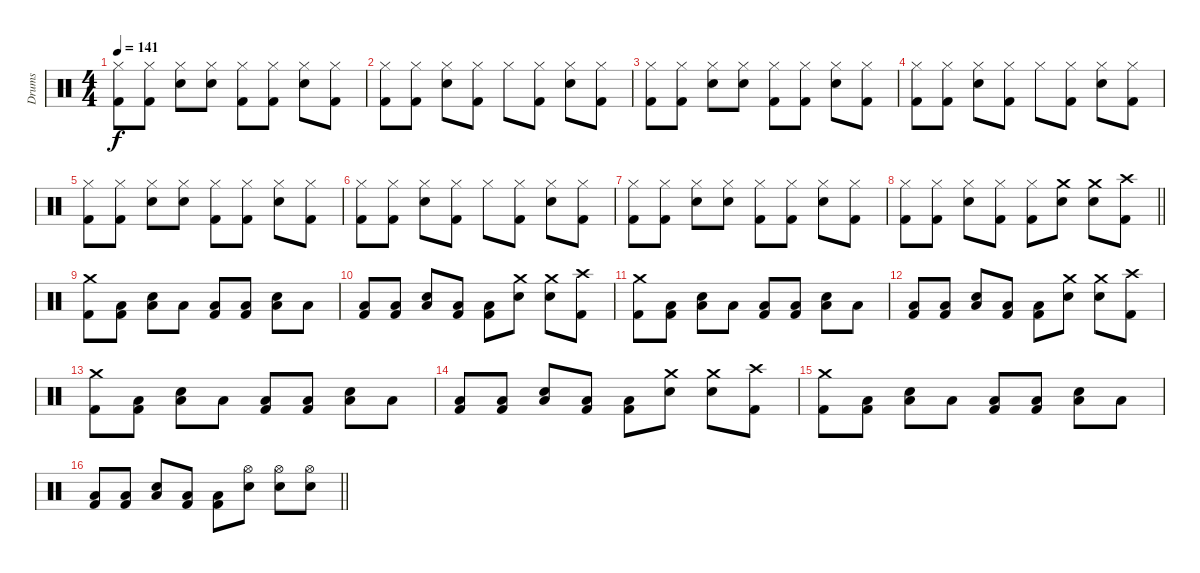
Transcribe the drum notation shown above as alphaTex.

\track ("Drums" "Drums") {instrument percussion}
\staff {score}
\articulation defaults
\ts (4 4)
\tempo 141
\clef neutral
\ks c
("Hi-Hat (closed)" "Kick (hit) 2").8{dy f} ("Hi-Hat (closed)" "Kick (hit) 2").8 ("Hi-Hat (closed)" "Electric Snare (hit)").8 ("Hi-Hat (closed)" "Electric Snare (hit)").8 ("Hi-Hat (closed)" "Kick (hit) 2").8 ("Hi-Hat (closed)" "Kick (hit) 2").8 ("Hi-Hat (closed)" "Electric Snare (hit)").8 ("Hi-Hat (closed)" "Kick (hit) 2").8 |
("Hi-Hat (closed)" "Kick (hit) 2").8 ("Hi-Hat (closed)" "Kick (hit) 2").8 ("Hi-Hat (closed)" "Electric Snare (hit)").8 ("Hi-Hat (closed)" "Kick (hit) 2").8 "Hi-Hat (closed)".8 ("Hi-Hat (closed)" "Kick (hit) 2").8 ("Hi-Hat (closed)" "Electric Snare (hit)").8 ("Hi-Hat (closed)" "Kick (hit) 2").8 |
("Hi-Hat (closed)" "Kick (hit) 2").8 ("Hi-Hat (closed)" "Kick (hit) 2").8 ("Hi-Hat (closed)" "Electric Snare (hit)").8 ("Hi-Hat (closed)" "Electric Snare (hit)").8 ("Hi-Hat (closed)" "Kick (hit) 2").8 ("Hi-Hat (closed)" "Kick (hit) 2").8 ("Hi-Hat (closed)" "Electric Snare (hit)").8 ("Hi-Hat (closed)" "Kick (hit) 2").8 |
("Hi-Hat (closed)" "Kick (hit) 2").8 ("Hi-Hat (closed)" "Kick (hit) 2").8 ("Hi-Hat (closed)" "Electric Snare (hit)").8 ("Hi-Hat (closed)" "Kick (hit) 2").8 "Hi-Hat (closed)".8 ("Hi-Hat (closed)" "Kick (hit) 2").8 ("Hi-Hat (closed)" "Electric Snare (hit)").8 ("Hi-Hat (closed)" "Kick (hit) 2").8 |
("Hi-Hat (closed)" "Kick (hit) 2").8 ("Hi-Hat (closed)" "Kick (hit) 2").8 ("Hi-Hat (closed)" "Electric Snare (hit)").8 ("Hi-Hat (closed)" "Electric Snare (hit)").8 ("Hi-Hat (closed)" "Kick (hit) 2").8 ("Hi-Hat (closed)" "Kick (hit) 2").8 ("Hi-Hat (closed)" "Electric Snare (hit)").8 ("Hi-Hat (closed)" "Kick (hit) 2").8 |
("Hi-Hat (closed)" "Kick (hit) 2").8 ("Hi-Hat (closed)" "Kick (hit) 2").8 ("Hi-Hat (closed)" "Electric Snare (hit)").8 ("Hi-Hat (closed)" "Kick (hit) 2").8 "Hi-Hat (closed)".8 ("Hi-Hat (closed)" "Kick (hit) 2").8 ("Hi-Hat (closed)" "Electric Snare (hit)").8 ("Hi-Hat (closed)" "Kick (hit) 2").8 |
("Hi-Hat (closed)" "Kick (hit) 2").8 ("Hi-Hat (closed)" "Kick (hit) 2").8 ("Hi-Hat (closed)" "Electric Snare (hit)").8 ("Hi-Hat (closed)" "Electric Snare (hit)").8 ("Hi-Hat (closed)" "Kick (hit) 2").8 ("Hi-Hat (closed)" "Kick (hit) 2").8 ("Hi-Hat (closed)" "Electric Snare (hit)").8 ("Hi-Hat (closed)" "Kick (hit) 2").8 |
\barLineRight lightlight
("Hi-Hat (closed)" "Kick (hit) 2").8 ("Hi-Hat (closed)" "Kick (hit) 2").8 ("Hi-Hat (closed)" "Electric Snare (hit)").8 ("Hi-Hat (closed)" "Kick (hit) 2").8 ("Hi-Hat (closed)" "Kick (hit) 2").8 ("Crash medium (hit)" "Electric Snare (hit)").8 ("Crash medium (hit)" "Electric Snare (hit)").8 ("Crash high (hit)" "Kick (hit) 2").8 |
("Crash medium (hit)" "Kick (hit) 2").8 ("Low Floor Tom (hit)" "Kick (hit) 2").8 ("Electric Snare (hit)" "Low Floor Tom (hit)").8 "Low Floor Tom (hit)".8 ("Low Floor Tom (hit)" "Kick (hit) 2").8 ("Low Floor Tom (hit)" "Kick (hit) 2").8 ("Electric Snare (hit)" "Low Floor Tom (hit)").8 "Low Floor Tom (hit)".8 |
("Low Floor Tom (hit)" "Kick (hit) 2").8 ("Low Floor Tom (hit)" "Kick (hit) 2").8 ("Electric Snare (hit)" "Low Floor Tom (hit)").8 ("Low Floor Tom (hit)" "Kick (hit) 2").8 ("Low Floor Tom (hit)" "Kick (hit) 2").8 ("Crash medium (hit)" "Electric Snare (hit)").8 ("Crash medium (hit)" "Electric Snare (hit)").8 ("Crash high (hit)" "Kick (hit) 2").8 |
("Crash medium (hit)" "Kick (hit) 2").8 ("Low Floor Tom (hit)" "Kick (hit) 2").8 ("Electric Snare (hit)" "Low Floor Tom (hit)").8 "Low Floor Tom (hit)".8 ("Low Floor Tom (hit)" "Kick (hit) 2").8 ("Low Floor Tom (hit)" "Kick (hit) 2").8 ("Electric Snare (hit)" "Low Floor Tom (hit)").8 "Low Floor Tom (hit)".8 |
("Low Floor Tom (hit)" "Kick (hit) 2").8 ("Low Floor Tom (hit)" "Kick (hit) 2").8 ("Electric Snare (hit)" "Low Floor Tom (hit)").8 ("Low Floor Tom (hit)" "Kick (hit) 2").8 ("Low Floor Tom (hit)" "Kick (hit) 2").8 ("Crash medium (hit)" "Electric Snare (hit)").8 ("Crash medium (hit)" "Electric Snare (hit)").8 ("Crash high (hit)" "Kick (hit) 2").8 |
("Crash medium (hit)" "Kick (hit) 2").8 ("Low Floor Tom (hit)" "Kick (hit) 2").8 ("Electric Snare (hit)" "Low Floor Tom (hit)").8 "Low Floor Tom (hit)".8 ("Low Floor Tom (hit)" "Kick (hit) 2").8 ("Low Floor Tom (hit)" "Kick (hit) 2").8 ("Electric Snare (hit)" "Low Floor Tom (hit)").8 "Low Floor Tom (hit)".8 |
("Low Floor Tom (hit)" "Kick (hit) 2").8 ("Low Floor Tom (hit)" "Kick (hit) 2").8 ("Electric Snare (hit)" "Low Floor Tom (hit)").8 ("Low Floor Tom (hit)" "Kick (hit) 2").8 ("Low Floor Tom (hit)" "Kick (hit) 2").8 ("Crash medium (hit)" "Electric Snare (hit)").8 ("Crash medium (hit)" "Electric Snare (hit)").8 ("Crash high (hit)" "Kick (hit) 2").8 |
("Crash medium (hit)" "Kick (hit) 2").8 ("Low Floor Tom (hit)" "Kick (hit) 2").8 ("Electric Snare (hit)" "Low Floor Tom (hit)").8 "Low Floor Tom (hit)".8 ("Low Floor Tom (hit)" "Kick (hit) 2").8 ("Low Floor Tom (hit)" "Kick (hit) 2").8 ("Electric Snare (hit)" "Low Floor Tom (hit)").8 "Low Floor Tom (hit)".8 |
\barLineRight lightlight
("Low Floor Tom (hit)" "Kick (hit) 2").8 ("Low Floor Tom (hit)" "Kick (hit) 2").8 ("Electric Snare (hit)" "Low Floor Tom (hit)").8 ("Low Floor Tom (hit)" "Kick (hit) 2").8 ("Low Floor Tom (hit)" "Kick (hit) 2").8 ("Hi-Hat (open)" "Electric Snare (hit)").8 ("Hi-Hat (open)" "Electric Snare (hit)").8 ("Hi-Hat (open)" "Electric Snare (hit)").8
